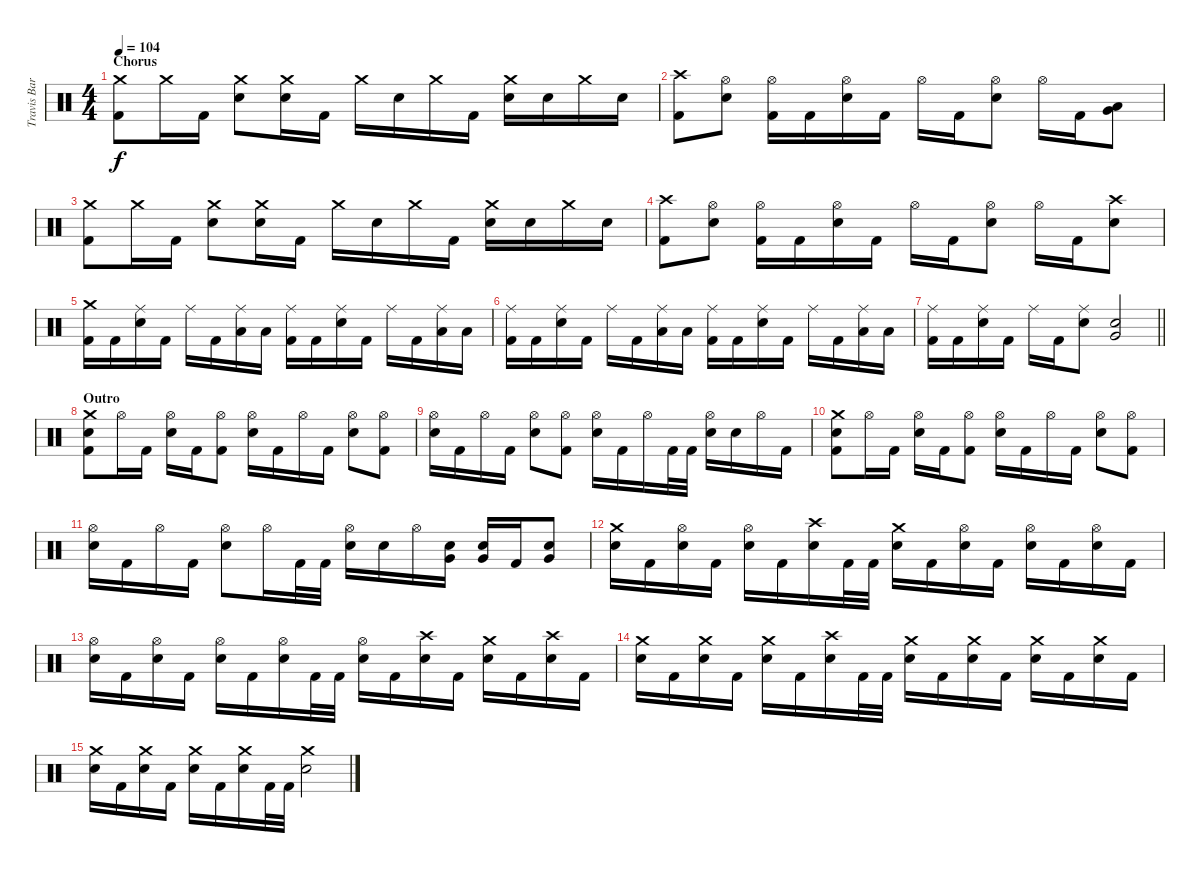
\track ("Travis Barker - Drums" "Travis Bar") {instrument percussion}
\staff {score}
\articulation defaults
\ts (4 4)
\section ("" "Chorus")
\tempo 104
\clef neutral
\ks c
("Crash medium (hit)" "Kick (hit) 2").8{dy f} "Crash medium (hit)".16 "Kick (hit) 2".16 ("Crash medium (hit)" "Electric Snare (hit)").8 ("Crash medium (hit)" "Electric Snare (hit)").16 "Kick (hit) 2".16 "Crash medium (hit)".16 "Electric Snare (hit)".16 "Crash medium (hit)".16 "Kick (hit) 2".16 ("Crash medium (hit)" "Electric Snare (hit)").16 "Electric Snare (hit)".16 "Crash medium (hit)".16 "Electric Snare (hit)".16 |
("Crash high (hit)" "Kick (hit) 2").8 ("Hi-Hat (open)" "Electric Snare (hit)").8 ("Hi-Hat (open)" "Kick (hit) 2").16 "Kick (hit) 2".16 ("Hi-Hat (open)" "Electric Snare (hit)").16 "Kick (hit) 2".16 "Hi-Hat (open)".16 "Kick (hit) 2".16 ("Hi-Hat (open)" "Electric Snare (hit)").8 "Hi-Hat (open)".16 "Kick (hit) 2".16 ("Very Low Tom (hit)" "Low Floor Tom (hit)").8 |
("Crash medium (hit)" "Kick (hit) 2").8 "Crash medium (hit)".16 "Kick (hit) 2".16 ("Crash medium (hit)" "Electric Snare (hit)").8 ("Crash medium (hit)" "Electric Snare (hit)").16 "Kick (hit) 2".16 "Crash medium (hit)".16 "Electric Snare (hit)".16 "Crash medium (hit)".16 "Kick (hit) 2".16 ("Crash medium (hit)" "Electric Snare (hit)").16 "Electric Snare (hit)".16 "Crash medium (hit)".16 "Electric Snare (hit)".16 |
("Crash high (hit)" "Kick (hit) 2").8 ("Hi-Hat (open)" "Electric Snare (hit)").8 ("Hi-Hat (open)" "Kick (hit) 2").16 "Kick (hit) 2".16 ("Hi-Hat (open)" "Electric Snare (hit)").16 "Kick (hit) 2".16 "Hi-Hat (open)".16 "Kick (hit) 2".16 ("Hi-Hat (open)" "Electric Snare (hit)").8 "Hi-Hat (open)".16 "Kick (hit) 2".16 ("Crash high (hit)" "Electric Snare (hit)").8 |
("Crash medium (hit)" "Kick (hit) 2").16 "Kick (hit) 2".16 ("Ride (middle)" "Electric Snare (hit)").16 "Kick (hit) 2".16 "Ride (middle)".16 "Kick (hit) 2".16 ("Ride (middle)" "Low Tom (hit)").16 "Low Tom (hit)".16 ("Ride (middle)" "Kick (hit) 2").16 "Kick (hit) 2".16 ("Ride (middle)" "Electric Snare (hit)").16 "Kick (hit) 2".16 "Ride (middle)".16 "Kick (hit) 2".16 ("Ride (middle)" "Low Tom (hit)").16 "Low Tom (hit)".16 |
("Ride (middle)" "Kick (hit) 2").16 "Kick (hit) 2".16 ("Ride (middle)" "Electric Snare (hit)").16 "Kick (hit) 2".16 "Ride (middle)".16 "Kick (hit) 2".16 ("Ride (middle)" "Low Tom (hit)").16 "Low Tom (hit)".16 ("Ride (middle)" "Kick (hit) 2").16 "Kick (hit) 2".16 ("Ride (middle)" "Electric Snare (hit)").16 "Kick (hit) 2".16 "Ride (middle)".16 "Kick (hit) 2".16 ("Ride (middle)" "Low Tom (hit)").16 "Low Tom (hit)".16 |
\barLineRight lightlight
("Ride (middle)" "Kick (hit) 2").16 "Kick (hit) 2".16 ("Ride (middle)" "Electric Snare (hit)").16 "Kick (hit) 2".16 "Ride (middle)".16 "Kick (hit) 2".16 ("Ride (middle)" "Electric Snare (hit)").8 ("Electric Snare (hit)" "Very Low Tom (hit)").2 |
\section ("" "Outro")
("Crash medium (hit)" "Electric Snare (hit)" "Kick (hit) 2").8 "Hi-Hat (open)".16 "Kick (hit) 2".16 ("Hi-Hat (open)" "Electric Snare (hit)").16 "Kick (hit) 2".16 ("Hi-Hat (open)" "Kick (hit) 2").8 ("Hi-Hat (open)" "Electric Snare (hit)").16 "Kick (hit) 2".16 "Hi-Hat (open)".16 "Kick (hit) 2".16 ("Hi-Hat (open)" "Electric Snare (hit)").8 ("Hi-Hat (open)" "Kick (hit) 2").8 |
("Hi-Hat (open)" "Electric Snare (hit)").16 "Kick (hit) 2".16 "Hi-Hat (open)".16 "Kick (hit) 2".16 ("Hi-Hat (open)" "Electric Snare (hit)").8 ("Hi-Hat (open)" "Kick (hit) 2").8 ("Hi-Hat (open)" "Electric Snare (hit)").16 "Kick (hit) 2".16 "Hi-Hat (open)".16 "Kick (hit) 2".32 "Kick (hit) 2".32 ("Hi-Hat (open)" "Electric Snare (hit)").16 "Electric Snare (hit)".16 "Hi-Hat (open)".16 "Kick (hit) 2".16 |
("Crash medium (hit)" "Electric Snare (hit)" "Kick (hit) 2").8 "Hi-Hat (open)".16 "Kick (hit) 2".16 ("Hi-Hat (open)" "Electric Snare (hit)").16 "Kick (hit) 2".16 ("Hi-Hat (open)" "Kick (hit) 2").8 ("Hi-Hat (open)" "Electric Snare (hit)").16 "Kick (hit) 2".16 "Hi-Hat (open)".16 "Kick (hit) 2".16 ("Hi-Hat (open)" "Electric Snare (hit)").8 ("Hi-Hat (open)" "Kick (hit) 2").8 |
("Hi-Hat (open)" "Electric Snare (hit)").16 "Kick (hit) 2".16 "Hi-Hat (open)".16 "Kick (hit) 2".16 ("Hi-Hat (open)" "Electric Snare (hit)").8 "Hi-Hat (open)".16 "Kick (hit) 2".32 "Kick (hit) 2".32 ("Hi-Hat (open)" "Electric Snare (hit)").16 "Electric Snare (hit)".16 "Hi-Hat (open)".16 ("Very Low Tom (hit)" "Electric Snare (hit)").16 ("Very Low Tom (hit)" "Electric Snare (hit)").16 "Kick (hit) 2".16 ("Very Low Tom (hit)" "Electric Snare (hit)").8 |
("Crash medium (hit)" "Electric Snare (hit)").16 "Kick (hit) 2".16 ("Hi-Hat (open)" "Electric Snare (hit)").16 "Kick (hit) 2".16 ("Hi-Hat (open)" "Electric Snare (hit)").16 "Kick (hit) 2".16 ("Crash high (hit)" "Electric Snare (hit)").16 "Kick (hit) 2".32 "Kick (hit) 2".32 ("Crash medium (hit)" "Electric Snare (hit)").16 "Kick (hit) 2".16 ("Hi-Hat (open)" "Electric Snare (hit)").16 "Kick (hit) 2".16 ("Hi-Hat (open)" "Electric Snare (hit)").16 "Kick (hit) 2".16 ("Hi-Hat (open)" "Electric Snare (hit)").16 "Kick (hit) 2".16 |
("Hi-Hat (open)" "Electric Snare (hit)").16 "Kick (hit) 2".16 ("Hi-Hat (open)" "Electric Snare (hit)").16 "Kick (hit) 2".16 ("Hi-Hat (open)" "Electric Snare (hit)").16 "Kick (hit) 2".16 ("Hi-Hat (open)" "Electric Snare (hit)").16 "Kick (hit) 2".32 "Kick (hit) 2".32 ("Hi-Hat (open)" "Electric Snare (hit)").16 "Kick (hit) 2".16 ("Crash high (hit)" "Electric Snare (hit)").16 "Kick (hit) 2".16 ("Crash medium (hit)" "Electric Snare (hit)").16 "Kick (hit) 2".16 ("Crash high (hit)" "Electric Snare (hit)").16 "Kick (hit) 2".16 |
("Crash medium (hit)" "Electric Snare (hit)").16 "Kick (hit) 2".16 ("Crash medium (hit)" "Electric Snare (hit)").16 "Kick (hit) 2".16 ("Crash medium (hit)" "Electric Snare (hit)").16 "Kick (hit) 2".16 ("Crash high (hit)" "Electric Snare (hit)").16 "Kick (hit) 2".32 "Kick (hit) 2".32 ("Crash medium (hit)" "Electric Snare (hit)").16 "Kick (hit) 2".16 ("Crash medium (hit)" "Electric Snare (hit)").16 "Kick (hit) 2".16 ("Crash medium (hit)" "Electric Snare (hit)").16 "Kick (hit) 2".16 ("Crash medium (hit)" "Electric Snare (hit)").16 "Kick (hit) 2".16 |
("Crash medium (hit)" "Electric Snare (hit)").16 "Kick (hit) 2".16 ("Crash medium (hit)" "Electric Snare (hit)").16 "Kick (hit) 2".16 ("Crash medium (hit)" "Electric Snare (hit)").16 "Kick (hit) 2".16 ("Crash medium (hit)" "Electric Snare (hit)").16 "Kick (hit) 2".32 "Kick (hit) 2".32 ("Crash medium (hit)" "Electric Snare (hit)").2
